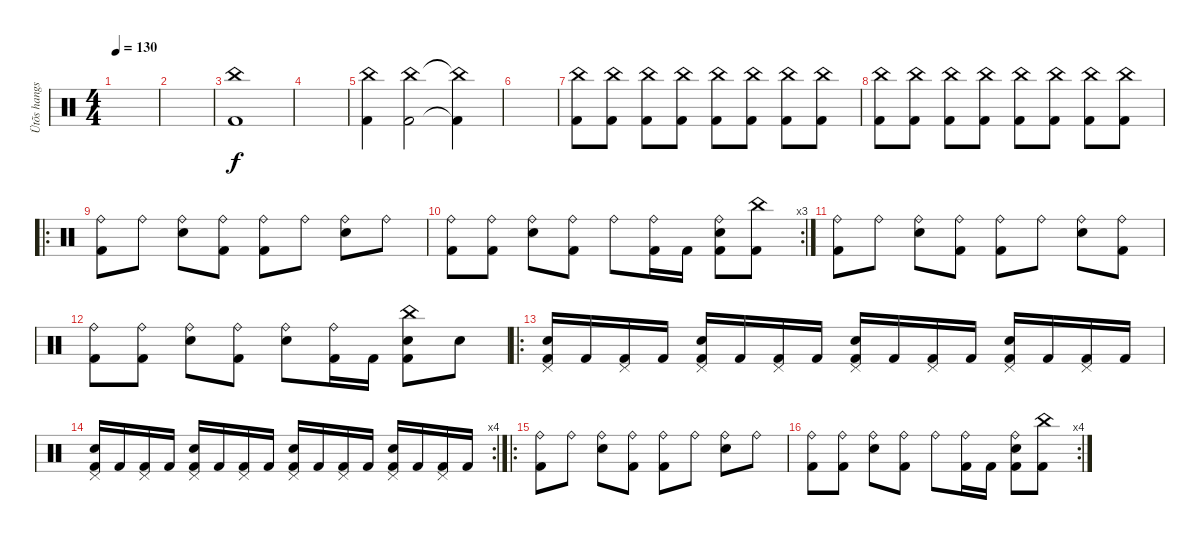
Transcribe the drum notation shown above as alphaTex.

\track ("Ütõs hangszer" "Ütõs hangs") {instrument percussion}
\staff {score}
\articulation defaults
\ts (4 4)
\tempo 130
\clef neutral
\ks c
|
|
("China (hit)" "Kick (hit) 2").1 |
|
("China (hit)" "Kick (hit) 2").4 ("China (hit)" "Kick (hit) 2").2 ("China (hit)"{t} "Kick (hit) 2"{t}).4 |
|
("China (hit)" "Kick (hit) 2").8 ("China (hit)" "Kick (hit) 2").8 ("China (hit)" "Kick (hit) 2").8 ("China (hit)" "Kick (hit) 2").8 ("China (hit)" "Kick (hit) 2").8 ("China (hit)" "Kick (hit) 2").8 ("China (hit)" "Kick (hit) 2").8 ("China (hit)" "Kick (hit) 2").8 |
("China (hit)" "Kick (hit) 2").8 ("China (hit)" "Kick (hit) 2").8 ("China (hit)" "Kick (hit) 2").8 ("China (hit)" "Kick (hit) 2").8 ("China (hit)" "Kick (hit) 2").8 ("China (hit)" "Kick (hit) 2").8 ("China (hit)" "Kick (hit) 2").8 ("China (hit)" "Kick (hit) 2").8 |
\ro
("Ride (bell)" "Kick (hit) 2").8 "Ride (bell)".8 ("Ride (bell)" "Electric Snare (hit)").8 ("Ride (bell)" "Kick (hit) 2").8 ("Ride (bell)" "Kick (hit) 2").8 "Ride (bell)".8 ("Ride (bell)" "Electric Snare (hit)").8 "Ride (bell)".8 |
\rc 3
("Ride (bell)" "Kick (hit) 2").8 ("Ride (bell)" "Kick (hit) 2").8 ("Ride (bell)" "Electric Snare (hit)").8 ("Ride (bell)" "Kick (hit) 2").8 "Ride (bell)".8 ("Ride (bell)" "Kick (hit) 2").16 "Kick (hit) 2".16 ("Ride (bell)" "Electric Snare (hit)" "Kick (hit) 2").8 ("China (hit)" "Kick (hit) 2").8 |
("Ride (bell)" "Kick (hit) 2").8 "Ride (bell)".8 ("Ride (bell)" "Electric Snare (hit)").8 ("Ride (bell)" "Kick (hit) 2").8 ("Ride (bell)" "Kick (hit) 2").8 "Ride (bell)".8 ("Ride (bell)" "Electric Snare (hit)").8 ("Ride (bell)" "Kick (hit) 2").8 |
("Ride (bell)" "Kick (hit) 2").8 ("Ride (bell)" "Kick (hit) 2").8 ("Ride (bell)" "Electric Snare (hit)").8 ("Ride (bell)" "Kick (hit) 2").8 ("Ride (bell)" "Electric Snare (hit)").8 ("Ride (bell)" "Kick (hit) 2").16 "Kick (hit) 2".16 ("China (hit)" "Electric Snare (hit)" "Kick (hit) 2").8 "Electric Snare (hit)".8 |
\ro
("Pedal Hi-Hat (hit)" "Electric Snare (hit)" "Kick (hit) 2").16 "Kick (hit) 2".16 ("Pedal Hi-Hat (hit)" "Kick (hit) 2").16 "Kick (hit) 2".16 ("Pedal Hi-Hat (hit)" "Electric Snare (hit)" "Kick (hit) 2").16 "Kick (hit) 2".16 ("Pedal Hi-Hat (hit)" "Kick (hit) 2").16 "Kick (hit) 2".16 ("Pedal Hi-Hat (hit)" "Electric Snare (hit)" "Kick (hit) 2").16 "Kick (hit) 2".16 ("Pedal Hi-Hat (hit)" "Kick (hit) 2").16 "Kick (hit) 2".16 ("Pedal Hi-Hat (hit)" "Electric Snare (hit)" "Kick (hit) 2").16 "Kick (hit) 2".16 ("Pedal Hi-Hat (hit)" "Kick (hit) 2").16 "Kick (hit) 2".16 |
\rc 4
("Pedal Hi-Hat (hit)" "Electric Snare (hit)" "Kick (hit) 2").16 "Kick (hit) 2".16 ("Pedal Hi-Hat (hit)" "Kick (hit) 2").16 "Kick (hit) 2".16 ("Pedal Hi-Hat (hit)" "Electric Snare (hit)" "Kick (hit) 2").16 "Kick (hit) 2".16 ("Pedal Hi-Hat (hit)" "Kick (hit) 2").16 "Kick (hit) 2".16 ("Pedal Hi-Hat (hit)" "Electric Snare (hit)" "Kick (hit) 2").16 "Kick (hit) 2".16 ("Pedal Hi-Hat (hit)" "Kick (hit) 2").16 "Kick (hit) 2".16 ("Pedal Hi-Hat (hit)" "Electric Snare (hit)" "Kick (hit) 2").16 "Kick (hit) 2".16 ("Pedal Hi-Hat (hit)" "Kick (hit) 2").16 "Kick (hit) 2".16 |
\ro
("Ride (bell)" "Kick (hit) 2").8 "Ride (bell)".8 ("Ride (bell)" "Electric Snare (hit)").8 ("Ride (bell)" "Kick (hit) 2").8 ("Ride (bell)" "Kick (hit) 2").8 "Ride (bell)".8 ("Ride (bell)" "Electric Snare (hit)").8 "Ride (bell)".8 |
\rc 4
("Ride (bell)" "Kick (hit) 2").8 ("Ride (bell)" "Kick (hit) 2").8 ("Ride (bell)" "Electric Snare (hit)").8 ("Ride (bell)" "Kick (hit) 2").8 "Ride (bell)".8 ("Ride (bell)" "Kick (hit) 2").16 "Kick (hit) 2".16 ("Ride (bell)" "Electric Snare (hit)" "Kick (hit) 2").8 ("China (hit)" "Kick (hit) 2").8
